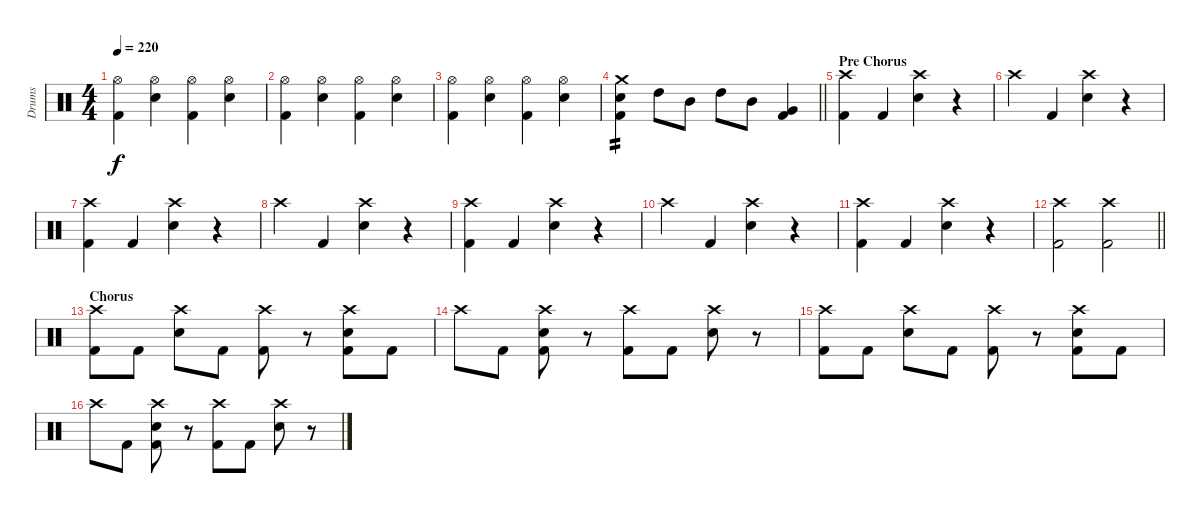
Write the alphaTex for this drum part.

\track ("Drums" "Drums") {instrument percussion}
\staff {score}
\articulation defaults
\ts (4 4)
\tempo 220
\clef neutral
\ks c
("Hi-Hat (open)" "Kick (hit) 2").4{dy f} ("Hi-Hat (open)" "Electric Snare (hit)").4 ("Hi-Hat (open)" "Kick (hit) 2").4 ("Hi-Hat (open)" "Electric Snare (hit)").4 |
("Hi-Hat (open)" "Kick (hit) 2").4 ("Hi-Hat (open)" "Electric Snare (hit)").4 ("Hi-Hat (open)" "Kick (hit) 2").4 ("Hi-Hat (open)" "Electric Snare (hit)").4 |
("Hi-Hat (open)" "Kick (hit) 2").4 ("Hi-Hat (open)" "Electric Snare (hit)").4 ("Hi-Hat (open)" "Kick (hit) 2").4 ("Hi-Hat (open)" "Electric Snare (hit)").4 |
\barLineRight lightlight
("Crash medium (hit)" "Electric Snare (hit)" "Kick (hit) 2").4{tp 2} "High Tom (hit)".8 "Mid Tom (hit)".8 "High Tom (hit)".8 "Mid Tom (hit)".8 ("Very Low Tom (hit)" "Kick (hit) 2").4 |
\section ("" "Pre Chorus")
("Crash high (hit)" "Kick (hit) 2").4 "Kick (hit) 2".4 ("Crash high (hit)" "Electric Snare (hit)").4 r.4 |
"Crash high (hit)".4 "Kick (hit) 2".4 ("Crash high (hit)" "Electric Snare (hit)").4 r.4 |
("Crash high (hit)" "Kick (hit) 2").4 "Kick (hit) 2".4 ("Crash high (hit)" "Electric Snare (hit)").4 r.4 |
"Crash high (hit)".4 "Kick (hit) 2".4 ("Crash high (hit)" "Electric Snare (hit)").4 r.4 |
("Crash high (hit)" "Kick (hit) 2").4 "Kick (hit) 2".4 ("Crash high (hit)" "Electric Snare (hit)").4 r.4 |
"Crash high (hit)".4 "Kick (hit) 2".4 ("Crash high (hit)" "Electric Snare (hit)").4 r.4 |
("Crash high (hit)" "Kick (hit) 2").4 "Kick (hit) 2".4 ("Crash high (hit)" "Electric Snare (hit)").4 r.4 |
\barLineRight lightlight
("Crash high (hit)" "Kick (hit) 2").2 ("Crash high (hit)" "Kick (hit) 2").2 |
\section ("" "Chorus")
("Crash high (hit)" "Kick (hit) 2").8 "Kick (hit) 2".8 ("Crash high (hit)" "Electric Snare (hit)").8 "Kick (hit) 2".8 ("Crash high (hit)" "Kick (hit) 2").8 r.8 ("Crash high (hit)" "Electric Snare (hit)" "Kick (hit) 2").8 "Kick (hit) 2".8 |
"Crash high (hit)".8 "Kick (hit) 2".8 ("Crash high (hit)" "Electric Snare (hit)" "Kick (hit) 2").8 r.8 ("Crash high (hit)" "Kick (hit) 2").8 "Kick (hit) 2".8 ("Crash high (hit)" "Electric Snare (hit)").8 r.8 |
("Crash high (hit)" "Kick (hit) 2").8 "Kick (hit) 2".8 ("Crash high (hit)" "Electric Snare (hit)").8 "Kick (hit) 2".8 ("Crash high (hit)" "Kick (hit) 2").8 r.8 ("Crash high (hit)" "Electric Snare (hit)" "Kick (hit) 2").8 "Kick (hit) 2".8 |
"Crash high (hit)".8 "Kick (hit) 2".8 ("Crash high (hit)" "Electric Snare (hit)" "Kick (hit) 2").8 r.8 ("Crash high (hit)" "Kick (hit) 2").8 "Kick (hit) 2".8 ("Crash high (hit)" "Electric Snare (hit)").8 r.8
